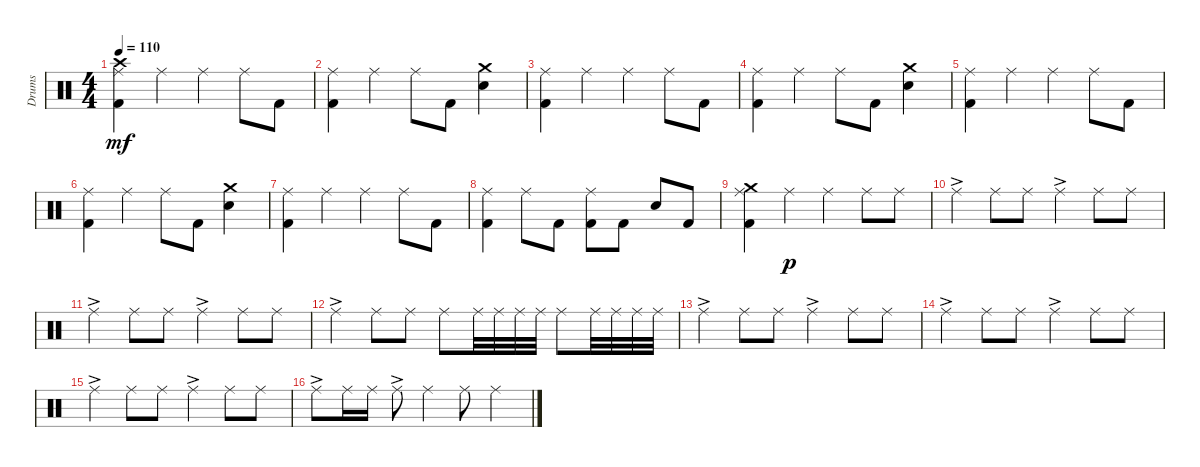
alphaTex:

\track ("Drums" "Drums") {instrument percussion}
\staff {score}
\articulation defaults
\ts (4 4)
\tempo 110
\clef neutral
\ks c
("Crash high (hit)" "Ride (middle)" "Kick (hit) 2").4{dy mf} "Ride (middle)".4 "Ride (middle)".4 "Ride (middle)".8 "Kick (hit) 2".8 |
("Ride (middle)" "Kick (hit) 2").4 "Ride (middle)".4 "Ride (middle)".8 "Kick (hit) 2".8 ("Crash medium (hit)" "Electric Snare (hit)").4 |
("Ride (middle)" "Kick (hit) 2").4 "Ride (middle)".4 "Ride (middle)".4 "Ride (middle)".8 "Kick (hit) 2".8 |
("Ride (middle)" "Kick (hit) 2").4 "Ride (middle)".4 "Ride (middle)".8 "Kick (hit) 2".8 ("Crash medium (hit)" "Electric Snare (hit)").4 |
("Ride (middle)" "Kick (hit) 2").4 "Ride (middle)".4 "Ride (middle)".4 "Ride (middle)".8 "Kick (hit) 2".8 |
("Ride (middle)" "Kick (hit) 2").4 "Ride (middle)".4 "Ride (middle)".8 "Kick (hit) 2".8 ("Crash medium (hit)" "Electric Snare (hit)").4 |
("Ride (middle)" "Kick (hit) 2").4 "Ride (middle)".4 "Ride (middle)".4 "Ride (middle)".8 "Kick (hit) 2".8 |
("Ride (middle)" "Kick (hit) 2").4 "Ride (middle)".8 "Kick (hit) 2".8 ("Ride (middle)" "Kick (hit) 2").8 "Kick (hit) 2".8 "Electric Snare (hit)".8 "Kick (hit) 2".8 |
("Crash medium (hit)" "Ride (middle)" "Kick (hit) 2").4 "Ride (middle)".4{dy p} "Ride (middle)".4 "Ride (middle)".8 "Ride (middle)".8 |
"Ride (middle)"{ac}.4 "Ride (middle)".8 "Ride (middle)".8 "Ride (middle)"{ac}.4 "Ride (middle)".8 "Ride (middle)".8 |
"Ride (middle)"{ac}.4 "Ride (middle)".8 "Ride (middle)".8 "Ride (middle)"{ac}.4 "Ride (middle)".8 "Ride (middle)".8 |
"Ride (middle)"{ac}.4 "Ride (middle)".8 "Ride (middle)".8 "Ride (middle)".8 "Ride (middle)".32 "Ride (middle)".32 "Ride (middle)".32 "Ride (middle)".32 "Ride (middle)".8 "Ride (middle)".32 "Ride (middle)".32 "Ride (middle)".32 "Ride (middle)".32 |
"Ride (middle)"{ac}.4 "Ride (middle)".8 "Ride (middle)".8 "Ride (middle)"{ac}.4 "Ride (middle)".8 "Ride (middle)".8 |
"Ride (middle)"{ac}.4 "Ride (middle)".8 "Ride (middle)".8 "Ride (middle)"{ac}.4 "Ride (middle)".8 "Ride (middle)".8 |
"Ride (middle)"{ac}.4 "Ride (middle)".8 "Ride (middle)".8 "Ride (middle)"{ac}.4 "Ride (middle)".8 "Ride (middle)".8 |
"Ride (middle)"{ac}.8 "Ride (middle)".16 "Ride (middle)".16 "Ride (middle)"{ac}.8 "Ride (middle)".4 "Ride (middle)".8 "Ride (middle)".4
